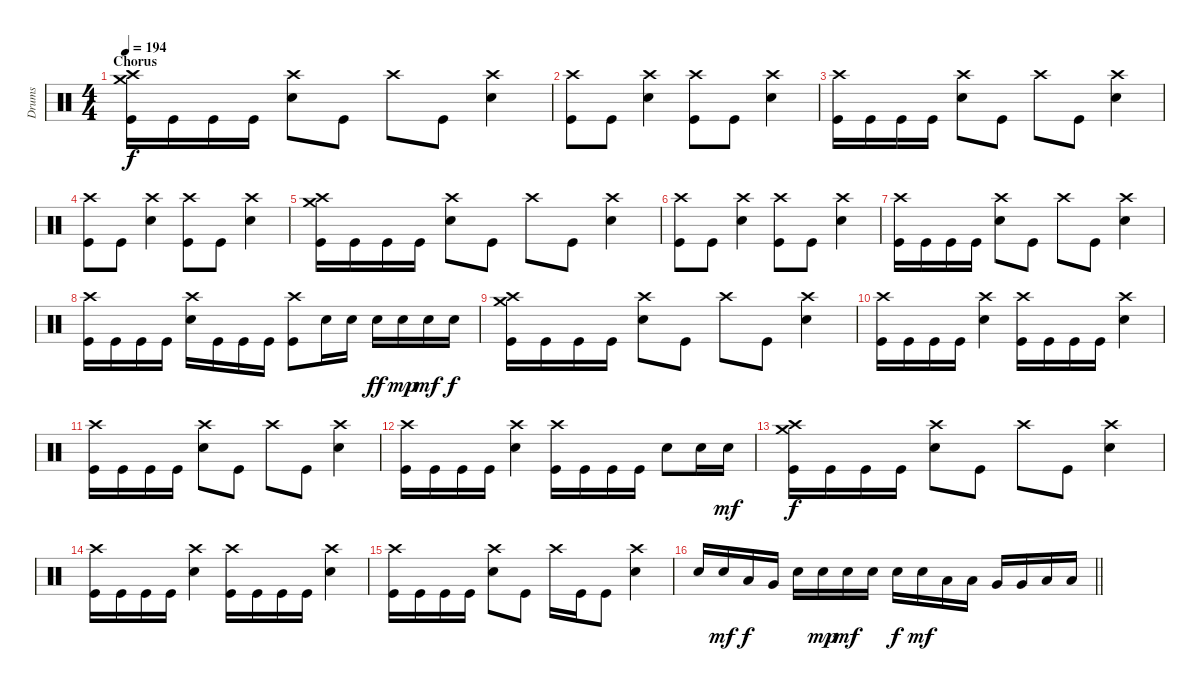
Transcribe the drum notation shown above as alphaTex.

\track ("Drums" "Drums") {instrument percussion}
\staff {score}
\articulation defaults
\ts (4 4)
\section ("" "Chorus")
\tempo 194
\clef neutral
\ks c
("Crash high (hit)" "Crash medium (hit)" "Kick (hit)").16{dy f} "Kick (hit)".16 "Kick (hit)".16 "Kick (hit)".16 ("Crash high (hit)" "Snare (hit) 2").8 "Kick (hit)".8 "Crash high (hit)".8 "Kick (hit)".8 ("Crash high (hit)" "Snare (hit) 2").4 |
("Crash high (hit)" "Kick (hit)").8 "Kick (hit)".8 ("Crash high (hit)" "Snare (hit) 2").4 ("Crash high (hit)" "Kick (hit)").8 "Kick (hit)".8 ("Crash high (hit)" "Snare (hit) 2").4 |
("Crash high (hit)" "Kick (hit)").16 "Kick (hit)".16 "Kick (hit)".16 "Kick (hit)".16 ("Crash high (hit)" "Snare (hit) 2").8 "Kick (hit)".8 "Crash high (hit)".8 "Kick (hit)".8 ("Crash high (hit)" "Snare (hit) 2").4 |
("Crash high (hit)" "Kick (hit)").8 "Kick (hit)".8 ("Crash high (hit)" "Snare (hit) 2").4 ("Crash high (hit)" "Kick (hit)").8 "Kick (hit)".8 ("Crash high (hit)" "Snare (hit) 2").4 |
("Crash high (hit)" "Crash medium (hit)" "Kick (hit)").16 "Kick (hit)".16 "Kick (hit)".16 "Kick (hit)".16 ("Crash high (hit)" "Snare (hit) 2").8 "Kick (hit)".8 "Crash high (hit)".8 "Kick (hit)".8 ("Crash high (hit)" "Snare (hit) 2").4 |
("Crash high (hit)" "Kick (hit)").8 "Kick (hit)".8 ("Crash high (hit)" "Snare (hit) 2").4 ("Crash high (hit)" "Kick (hit)").8 "Kick (hit)".8 ("Crash high (hit)" "Snare (hit) 2").4 |
("Crash high (hit)" "Kick (hit)").16 "Kick (hit)".16 "Kick (hit)".16 "Kick (hit)".16 ("Crash high (hit)" "Snare (hit) 2").8 "Kick (hit)".8 "Crash high (hit)".8 "Kick (hit)".8 ("Crash high (hit)" "Snare (hit) 2").4 |
("Crash high (hit)" "Kick (hit)").16 "Kick (hit)".16 "Kick (hit)".16 "Kick (hit)".16 ("Crash high (hit)" "Snare (hit) 2").16 "Kick (hit)".16 "Kick (hit)".16 "Kick (hit)".16 ("Crash high (hit)" "Kick (hit)").8 "Snare (hit) 2".16 "Snare (hit) 2".16 "Snare (hit) 2".16{dy ff} "Snare (hit) 2".16{dy mp} "Snare (hit) 2".16{dy mf} "Snare (hit) 2".16{dy f} |
("Crash high (hit)" "Crash medium (hit)" "Kick (hit)").16 "Kick (hit)".16 "Kick (hit)".16 "Kick (hit)".16 ("Crash high (hit)" "Snare (hit) 2").8 "Kick (hit)".8 "Crash high (hit)".8 "Kick (hit)".8 ("Crash high (hit)" "Snare (hit) 2").4 |
("Crash high (hit)" "Kick (hit)").16 "Kick (hit)".16 "Kick (hit)".16 "Kick (hit)".16 ("Crash high (hit)" "Snare (hit) 2").4 ("Crash high (hit)" "Kick (hit)").16 "Kick (hit)".16 "Kick (hit)".16 "Kick (hit)".16 ("Crash high (hit)" "Snare (hit) 2").4 |
("Crash high (hit)" "Kick (hit)").16 "Kick (hit)".16 "Kick (hit)".16 "Kick (hit)".16 ("Crash high (hit)" "Snare (hit) 2").8 "Kick (hit)".8 "Crash high (hit)".8 "Kick (hit)".8 ("Crash high (hit)" "Snare (hit) 2").4 |
("Crash high (hit)" "Kick (hit)").16 "Kick (hit)".16 "Kick (hit)".16 "Kick (hit)".16 ("Crash high (hit)" "Snare (hit) 2").4 ("Crash high (hit)" "Kick (hit)").16 "Kick (hit)".16 "Kick (hit)".16 "Kick (hit)".16 "Snare (hit) 2".8 "Snare (hit) 2".16 "Snare (hit) 2".16{dy mf} |
("Crash high (hit)" "Crash medium (hit)" "Kick (hit)").16{dy f} "Kick (hit)".16 "Kick (hit)".16 "Kick (hit)".16 ("Crash high (hit)" "Snare (hit) 2").8 "Kick (hit)".8 "Crash high (hit)".8 "Kick (hit)".8 ("Crash high (hit)" "Snare (hit) 2").4 |
("Crash high (hit)" "Kick (hit)").16 "Kick (hit)".16 "Kick (hit)".16 "Kick (hit)".16 ("Crash high (hit)" "Snare (hit) 2").4 ("Crash high (hit)" "Kick (hit)").16 "Kick (hit)".16 "Kick (hit)".16 "Kick (hit)".16 ("Crash high (hit)" "Snare (hit) 2").4 |
("Crash high (hit)" "Kick (hit)").16 "Kick (hit)".16 "Kick (hit)".16 "Kick (hit)".16 ("Crash high (hit)" "Snare (hit) 2").8 "Kick (hit)".8 "Crash high (hit)".16 "Kick (hit)".16 "Kick (hit)".8 ("Crash high (hit)" "Snare (hit) 2").4 |
\barLineRight lightlight "Snare (hit) 2".16 "Snare (hit) 2".16{dy mf} "Low Tom (hit)".16{dy f} "Very Low Tom (hit)".16 "Snare (hit) 2".16 "Snare (hit) 2".16{dy mp} "Snare (hit) 2".16{dy mf} "Snare (hit) 2".16 "Snare (hit) 2".16{dy f} "Snare (hit) 2".16{dy mf} "Low Tom (hit)".16 "Low Tom (hit)".16 "Very Low Tom (hit)".16 "Very Low Tom (hit)".16 "Low Floor Tom (hit)".16 "Low Floor Tom (hit)".16
